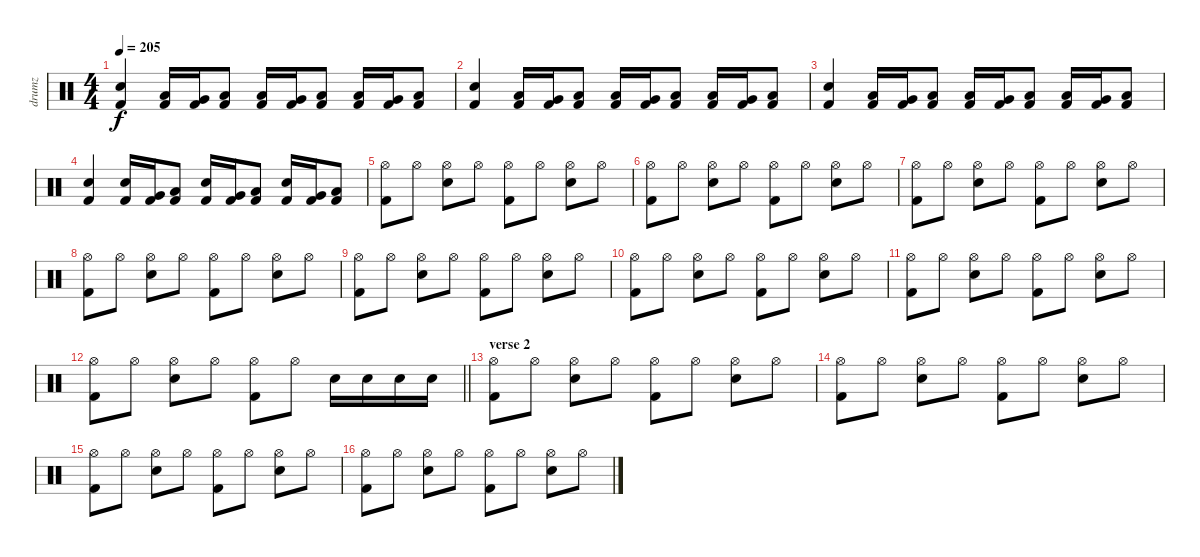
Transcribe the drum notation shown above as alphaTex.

\track ("drumz" "drumz") {instrument percussion}
\staff {score}
\articulation defaults
\ts (4 4)
\tempo 205
\clef neutral
\ks c
("Electric Snare (hit)" "Kick (hit) 2").4{dy f} ("Low Tom (hit)" "Kick (hit) 2").16 ("Very Low Tom (hit)" "Kick (hit) 2").16 ("Low Floor Tom (hit)" "Kick (hit) 2").8 ("Low Tom (hit)" "Kick (hit) 2").16 ("Very Low Tom (hit)" "Kick (hit) 2").16 ("Low Floor Tom (hit)" "Kick (hit) 2").8 ("Low Tom (hit)" "Kick (hit) 2").16 ("Very Low Tom (hit)" "Kick (hit) 2").16 ("Low Floor Tom (hit)" "Kick (hit) 2").8 |
("Electric Snare (hit)" "Kick (hit) 2").4 ("Low Tom (hit)" "Kick (hit) 2").16 ("Very Low Tom (hit)" "Kick (hit) 2").16 ("Low Floor Tom (hit)" "Kick (hit) 2").8 ("Low Tom (hit)" "Kick (hit) 2").16 ("Very Low Tom (hit)" "Kick (hit) 2").16 ("Low Floor Tom (hit)" "Kick (hit) 2").8 ("Low Tom (hit)" "Kick (hit) 2").16 ("Very Low Tom (hit)" "Kick (hit) 2").16 ("Low Floor Tom (hit)" "Kick (hit) 2").8 |
("Electric Snare (hit)" "Kick (hit) 2").4 ("Low Tom (hit)" "Kick (hit) 2").16 ("Very Low Tom (hit)" "Kick (hit) 2").16 ("Low Floor Tom (hit)" "Kick (hit) 2").8 ("Low Tom (hit)" "Kick (hit) 2").16 ("Very Low Tom (hit)" "Kick (hit) 2").16 ("Low Floor Tom (hit)" "Kick (hit) 2").8 ("Low Tom (hit)" "Kick (hit) 2").16 ("Very Low Tom (hit)" "Kick (hit) 2").16 ("Low Floor Tom (hit)" "Kick (hit) 2").8 |
("Electric Snare (hit)" "Kick (hit) 2").4 ("Electric Snare (hit)" "Kick (hit) 2").16 ("Very Low Tom (hit)" "Kick (hit) 2").16 ("Low Floor Tom (hit)" "Kick (hit) 2").8 ("Electric Snare (hit)" "Kick (hit) 2").16 ("Very Low Tom (hit)" "Kick (hit) 2").16 ("Low Floor Tom (hit)" "Kick (hit) 2").8 ("Electric Snare (hit)" "Kick (hit) 2").16 ("Very Low Tom (hit)" "Kick (hit) 2").16 ("Low Floor Tom (hit)" "Kick (hit) 2").8 |
("Hi-Hat (open)" "Kick (hit) 2").8 "Hi-Hat (open)".8 ("Hi-Hat (open)" "Electric Snare (hit)").8 "Hi-Hat (open)".8 ("Hi-Hat (open)" "Kick (hit) 2").8 "Hi-Hat (open)".8 ("Hi-Hat (open)" "Electric Snare (hit)").8 "Hi-Hat (open)".8 |
("Hi-Hat (open)" "Kick (hit) 2").8 "Hi-Hat (open)".8 ("Hi-Hat (open)" "Electric Snare (hit)").8 "Hi-Hat (open)".8 ("Hi-Hat (open)" "Kick (hit) 2").8 "Hi-Hat (open)".8 ("Hi-Hat (open)" "Electric Snare (hit)").8 "Hi-Hat (open)".8 |
("Hi-Hat (open)" "Kick (hit) 2").8 "Hi-Hat (open)".8 ("Hi-Hat (open)" "Electric Snare (hit)").8 "Hi-Hat (open)".8 ("Hi-Hat (open)" "Kick (hit) 2").8 "Hi-Hat (open)".8 ("Hi-Hat (open)" "Electric Snare (hit)").8 "Hi-Hat (open)".8 |
("Hi-Hat (open)" "Kick (hit) 2").8 "Hi-Hat (open)".8 ("Hi-Hat (open)" "Electric Snare (hit)").8 "Hi-Hat (open)".8 ("Hi-Hat (open)" "Kick (hit) 2").8 "Hi-Hat (open)".8 ("Hi-Hat (open)" "Electric Snare (hit)").8 "Hi-Hat (open)".8 |
("Hi-Hat (open)" "Kick (hit) 2").8 "Hi-Hat (open)".8 ("Hi-Hat (open)" "Electric Snare (hit)").8 "Hi-Hat (open)".8 ("Hi-Hat (open)" "Kick (hit) 2").8 "Hi-Hat (open)".8 ("Hi-Hat (open)" "Electric Snare (hit)").8 "Hi-Hat (open)".8 |
("Hi-Hat (open)" "Kick (hit) 2").8 "Hi-Hat (open)".8 ("Hi-Hat (open)" "Electric Snare (hit)").8 "Hi-Hat (open)".8 ("Hi-Hat (open)" "Kick (hit) 2").8 "Hi-Hat (open)".8 ("Hi-Hat (open)" "Electric Snare (hit)").8 "Hi-Hat (open)".8 |
("Hi-Hat (open)" "Kick (hit) 2").8 "Hi-Hat (open)".8 ("Hi-Hat (open)" "Electric Snare (hit)").8 "Hi-Hat (open)".8 ("Hi-Hat (open)" "Kick (hit) 2").8 "Hi-Hat (open)".8 ("Hi-Hat (open)" "Electric Snare (hit)").8 "Hi-Hat (open)".8 |
\barLineRight lightlight
("Hi-Hat (open)" "Kick (hit) 2").8 "Hi-Hat (open)".8 ("Hi-Hat (open)" "Electric Snare (hit)").8 "Hi-Hat (open)".8 ("Hi-Hat (open)" "Kick (hit) 2").8 "Hi-Hat (open)".8 "Electric Snare (hit)".16 "Electric Snare (hit)".16 "Electric Snare (hit)".16 "Electric Snare (hit)".16 |
\section ("" "verse 2")
("Hi-Hat (open)" "Kick (hit) 2").8 "Hi-Hat (open)".8 ("Hi-Hat (open)" "Electric Snare (hit)").8 "Hi-Hat (open)".8 ("Hi-Hat (open)" "Kick (hit) 2").8 "Hi-Hat (open)".8 ("Hi-Hat (open)" "Electric Snare (hit)").8 "Hi-Hat (open)".8 |
("Hi-Hat (open)" "Kick (hit) 2").8 "Hi-Hat (open)".8 ("Hi-Hat (open)" "Electric Snare (hit)").8 "Hi-Hat (open)".8 ("Hi-Hat (open)" "Kick (hit) 2").8 "Hi-Hat (open)".8 ("Hi-Hat (open)" "Electric Snare (hit)").8 "Hi-Hat (open)".8 |
("Hi-Hat (open)" "Kick (hit) 2").8 "Hi-Hat (open)".8 ("Hi-Hat (open)" "Electric Snare (hit)").8 "Hi-Hat (open)".8 ("Hi-Hat (open)" "Kick (hit) 2").8 "Hi-Hat (open)".8 ("Hi-Hat (open)" "Electric Snare (hit)").8 "Hi-Hat (open)".8 |
("Hi-Hat (open)" "Kick (hit) 2").8 "Hi-Hat (open)".8 ("Hi-Hat (open)" "Electric Snare (hit)").8 "Hi-Hat (open)".8 ("Hi-Hat (open)" "Kick (hit) 2").8 "Hi-Hat (open)".8 ("Hi-Hat (open)" "Electric Snare (hit)").8 "Hi-Hat (open)".8
